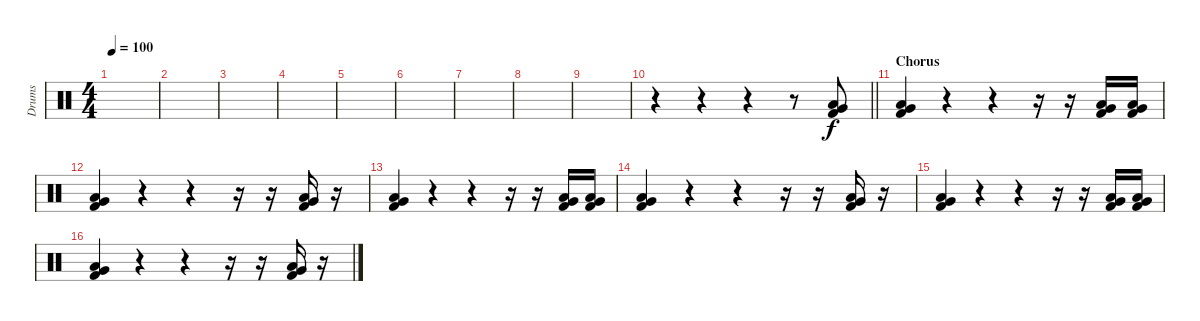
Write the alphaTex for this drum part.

\track ("Drums" "Drums") {instrument percussion}
\staff {score}
\articulation defaults
\ts (4 4)
\tempo 100
\clef neutral
\ks c
|
|
|
|
|
|
|
|
|
\barLineRight lightlight
r.4 r.4 r.4 r.8 ("Low Floor Tom (hit)" "Kick (hit) 2" "Very Low Tom (hit)").8 |
\section ("" "Chorus")
("Low Floor Tom (hit)" "Kick (hit) 2" "Very Low Tom (hit)").4 r.4 r.4 r.16 r.16 ("Low Floor Tom (hit)" "Kick (hit) 2" "Very Low Tom (hit)").16 ("Low Floor Tom (hit)" "Kick (hit) 2" "Very Low Tom (hit)").16 |
("Low Floor Tom (hit)" "Kick (hit) 2" "Very Low Tom (hit)").4 r.4 r.4 r.16 r.16 ("Low Floor Tom (hit)" "Kick (hit) 2" "Very Low Tom (hit)").16 r.16 |
("Low Floor Tom (hit)" "Kick (hit) 2" "Very Low Tom (hit)").4 r.4 r.4 r.16 r.16 ("Low Floor Tom (hit)" "Kick (hit) 2" "Very Low Tom (hit)").16 ("Low Floor Tom (hit)" "Kick (hit) 2" "Very Low Tom (hit)").16 |
("Low Floor Tom (hit)" "Kick (hit) 2" "Very Low Tom (hit)").4 r.4 r.4 r.16 r.16 ("Low Floor Tom (hit)" "Kick (hit) 2" "Very Low Tom (hit)").16 r.16 |
("Low Floor Tom (hit)" "Kick (hit) 2" "Very Low Tom (hit)").4 r.4 r.4 r.16 r.16 ("Low Floor Tom (hit)" "Kick (hit) 2" "Very Low Tom (hit)").16 ("Low Floor Tom (hit)" "Kick (hit) 2" "Very Low Tom (hit)").16 |
("Low Floor Tom (hit)" "Kick (hit) 2" "Very Low Tom (hit)").4 r.4 r.4 r.16 r.16 ("Low Floor Tom (hit)" "Kick (hit) 2" "Very Low Tom (hit)").16 r.16
